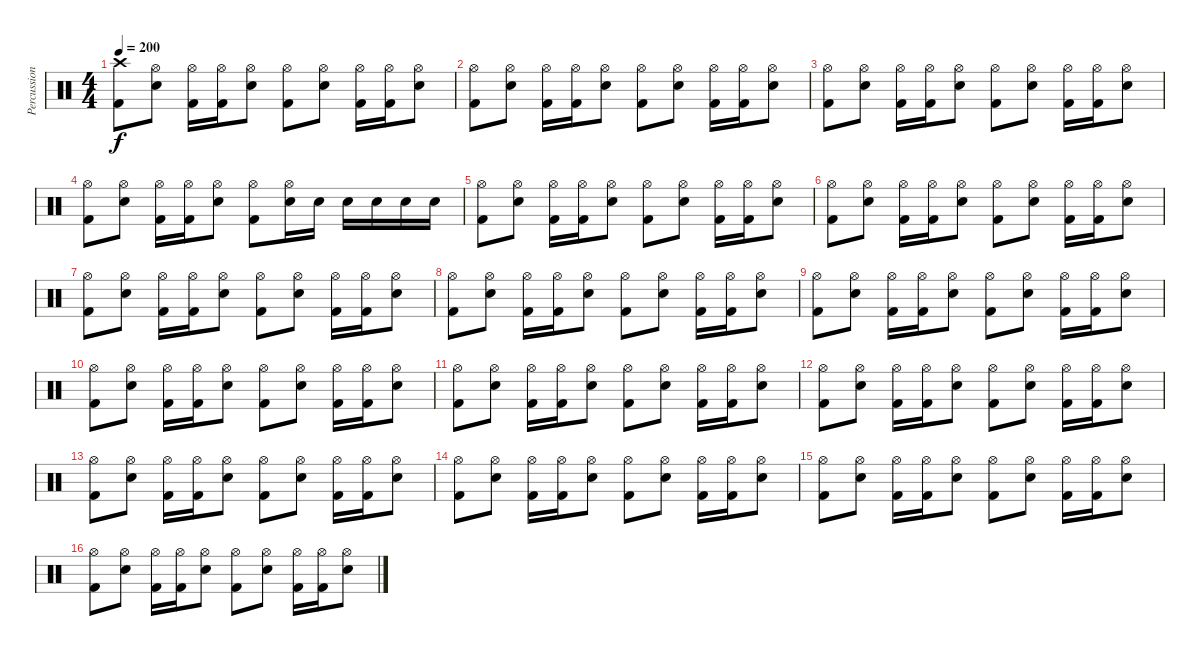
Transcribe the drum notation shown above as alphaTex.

\track ("Percussions" "Percussion") {instrument percussion}
\staff {score}
\articulation defaults
\ts (4 4)
\tempo 200
\clef neutral
\ks c
("Crash high (hit)" "Kick (hit) 2").8{dy f} ("Hi-Hat (open)" "Electric Snare (hit)").8 ("Hi-Hat (open)" "Kick (hit) 2").16 ("Hi-Hat (open)" "Kick (hit) 2").16 ("Hi-Hat (open)" "Electric Snare (hit)").8 ("Hi-Hat (open)" "Kick (hit) 2").8 ("Hi-Hat (open)" "Electric Snare (hit)").8 ("Hi-Hat (open)" "Kick (hit) 2").16 ("Hi-Hat (open)" "Kick (hit) 2").16 ("Hi-Hat (open)" "Electric Snare (hit)").8 |
("Hi-Hat (open)" "Kick (hit) 2").8 ("Hi-Hat (open)" "Electric Snare (hit)").8 ("Hi-Hat (open)" "Kick (hit) 2").16 ("Hi-Hat (open)" "Kick (hit) 2").16 ("Hi-Hat (open)" "Electric Snare (hit)").8 ("Hi-Hat (open)" "Kick (hit) 2").8 ("Hi-Hat (open)" "Electric Snare (hit)").8 ("Hi-Hat (open)" "Kick (hit) 2").16 ("Hi-Hat (open)" "Kick (hit) 2").16 ("Hi-Hat (open)" "Electric Snare (hit)").8 |
("Hi-Hat (open)" "Kick (hit) 2").8 ("Hi-Hat (open)" "Electric Snare (hit)").8 ("Hi-Hat (open)" "Kick (hit) 2").16 ("Hi-Hat (open)" "Kick (hit) 2").16 ("Hi-Hat (open)" "Electric Snare (hit)").8 ("Hi-Hat (open)" "Kick (hit) 2").8 ("Hi-Hat (open)" "Electric Snare (hit)").8 ("Hi-Hat (open)" "Kick (hit) 2").16 ("Hi-Hat (open)" "Kick (hit) 2").16 ("Hi-Hat (open)" "Electric Snare (hit)").8 |
("Hi-Hat (open)" "Kick (hit) 2").8 ("Hi-Hat (open)" "Electric Snare (hit)").8 ("Hi-Hat (open)" "Kick (hit) 2").16 ("Hi-Hat (open)" "Kick (hit) 2").16 ("Hi-Hat (open)" "Electric Snare (hit)").8 ("Hi-Hat (open)" "Kick (hit) 2").8 ("Hi-Hat (open)" "Electric Snare (hit)").16 "Electric Snare (hit)".16 "Electric Snare (hit)".16 "Electric Snare (hit)".16 "Electric Snare (hit)".16 "Electric Snare (hit)".16 |
("Hi-Hat (open)" "Kick (hit) 2").8 ("Hi-Hat (open)" "Electric Snare (hit)").8 ("Hi-Hat (open)" "Kick (hit) 2").16 ("Hi-Hat (open)" "Kick (hit) 2").16 ("Hi-Hat (open)" "Electric Snare (hit)").8 ("Hi-Hat (open)" "Kick (hit) 2").8 ("Hi-Hat (open)" "Electric Snare (hit)").8 ("Hi-Hat (open)" "Kick (hit) 2").16 ("Hi-Hat (open)" "Kick (hit) 2").16 ("Hi-Hat (open)" "Electric Snare (hit)").8 |
("Hi-Hat (open)" "Kick (hit) 2").8 ("Hi-Hat (open)" "Electric Snare (hit)").8 ("Hi-Hat (open)" "Kick (hit) 2").16 ("Hi-Hat (open)" "Kick (hit) 2").16 ("Hi-Hat (open)" "Electric Snare (hit)").8 ("Hi-Hat (open)" "Kick (hit) 2").8 ("Hi-Hat (open)" "Electric Snare (hit)").8 ("Hi-Hat (open)" "Kick (hit) 2").16 ("Hi-Hat (open)" "Kick (hit) 2").16 ("Hi-Hat (open)" "Electric Snare (hit)").8 |
("Hi-Hat (open)" "Kick (hit) 2").8 ("Hi-Hat (open)" "Electric Snare (hit)").8 ("Hi-Hat (open)" "Kick (hit) 2").16 ("Hi-Hat (open)" "Kick (hit) 2").16 ("Hi-Hat (open)" "Electric Snare (hit)").8 ("Hi-Hat (open)" "Kick (hit) 2").8 ("Hi-Hat (open)" "Electric Snare (hit)").8 ("Hi-Hat (open)" "Kick (hit) 2").16 ("Hi-Hat (open)" "Kick (hit) 2").16 ("Hi-Hat (open)" "Electric Snare (hit)").8 |
("Hi-Hat (open)" "Kick (hit) 2").8 ("Hi-Hat (open)" "Electric Snare (hit)").8 ("Hi-Hat (open)" "Kick (hit) 2").16 ("Hi-Hat (open)" "Kick (hit) 2").16 ("Hi-Hat (open)" "Electric Snare (hit)").8 ("Hi-Hat (open)" "Kick (hit) 2").8 ("Hi-Hat (open)" "Electric Snare (hit)").8 ("Hi-Hat (open)" "Kick (hit) 2").16 ("Hi-Hat (open)" "Kick (hit) 2").16 ("Hi-Hat (open)" "Electric Snare (hit)").8 |
("Hi-Hat (open)" "Kick (hit) 2").8 ("Hi-Hat (open)" "Electric Snare (hit)").8 ("Hi-Hat (open)" "Kick (hit) 2").16 ("Hi-Hat (open)" "Kick (hit) 2").16 ("Hi-Hat (open)" "Electric Snare (hit)").8 ("Hi-Hat (open)" "Kick (hit) 2").8 ("Hi-Hat (open)" "Electric Snare (hit)").8 ("Hi-Hat (open)" "Kick (hit) 2").16 ("Hi-Hat (open)" "Kick (hit) 2").16 ("Hi-Hat (open)" "Electric Snare (hit)").8 |
("Hi-Hat (open)" "Kick (hit) 2").8 ("Hi-Hat (open)" "Electric Snare (hit)").8 ("Hi-Hat (open)" "Kick (hit) 2").16 ("Hi-Hat (open)" "Kick (hit) 2").16 ("Hi-Hat (open)" "Electric Snare (hit)").8 ("Hi-Hat (open)" "Kick (hit) 2").8 ("Hi-Hat (open)" "Electric Snare (hit)").8 ("Hi-Hat (open)" "Kick (hit) 2").16 ("Hi-Hat (open)" "Kick (hit) 2").16 ("Hi-Hat (open)" "Electric Snare (hit)").8 |
("Hi-Hat (open)" "Kick (hit) 2").8 ("Hi-Hat (open)" "Electric Snare (hit)").8 ("Hi-Hat (open)" "Kick (hit) 2").16 ("Hi-Hat (open)" "Kick (hit) 2").16 ("Hi-Hat (open)" "Electric Snare (hit)").8 ("Hi-Hat (open)" "Kick (hit) 2").8 ("Hi-Hat (open)" "Electric Snare (hit)").8 ("Hi-Hat (open)" "Kick (hit) 2").16 ("Hi-Hat (open)" "Kick (hit) 2").16 ("Hi-Hat (open)" "Electric Snare (hit)").8 |
("Hi-Hat (open)" "Kick (hit) 2").8 ("Hi-Hat (open)" "Electric Snare (hit)").8 ("Hi-Hat (open)" "Kick (hit) 2").16 ("Hi-Hat (open)" "Kick (hit) 2").16 ("Hi-Hat (open)" "Electric Snare (hit)").8 ("Hi-Hat (open)" "Kick (hit) 2").8 ("Hi-Hat (open)" "Electric Snare (hit)").8 ("Hi-Hat (open)" "Kick (hit) 2").16 ("Hi-Hat (open)" "Kick (hit) 2").16 ("Hi-Hat (open)" "Electric Snare (hit)").8 |
("Hi-Hat (open)" "Kick (hit) 2").8 ("Hi-Hat (open)" "Electric Snare (hit)").8 ("Hi-Hat (open)" "Kick (hit) 2").16 ("Hi-Hat (open)" "Kick (hit) 2").16 ("Hi-Hat (open)" "Electric Snare (hit)").8 ("Hi-Hat (open)" "Kick (hit) 2").8 ("Hi-Hat (open)" "Electric Snare (hit)").8 ("Hi-Hat (open)" "Kick (hit) 2").16 ("Hi-Hat (open)" "Kick (hit) 2").16 ("Hi-Hat (open)" "Electric Snare (hit)").8 |
("Hi-Hat (open)" "Kick (hit) 2").8 ("Hi-Hat (open)" "Electric Snare (hit)").8 ("Hi-Hat (open)" "Kick (hit) 2").16 ("Hi-Hat (open)" "Kick (hit) 2").16 ("Hi-Hat (open)" "Electric Snare (hit)").8 ("Hi-Hat (open)" "Kick (hit) 2").8 ("Hi-Hat (open)" "Electric Snare (hit)").8 ("Hi-Hat (open)" "Kick (hit) 2").16 ("Hi-Hat (open)" "Kick (hit) 2").16 ("Hi-Hat (open)" "Electric Snare (hit)").8 |
("Hi-Hat (open)" "Kick (hit) 2").8 ("Hi-Hat (open)" "Electric Snare (hit)").8 ("Hi-Hat (open)" "Kick (hit) 2").16 ("Hi-Hat (open)" "Kick (hit) 2").16 ("Hi-Hat (open)" "Electric Snare (hit)").8 ("Hi-Hat (open)" "Kick (hit) 2").8 ("Hi-Hat (open)" "Electric Snare (hit)").8 ("Hi-Hat (open)" "Kick (hit) 2").16 ("Hi-Hat (open)" "Kick (hit) 2").16 ("Hi-Hat (open)" "Electric Snare (hit)").8 |
("Hi-Hat (open)" "Kick (hit) 2").8 ("Hi-Hat (open)" "Electric Snare (hit)").8 ("Hi-Hat (open)" "Kick (hit) 2").16 ("Hi-Hat (open)" "Kick (hit) 2").16 ("Hi-Hat (open)" "Electric Snare (hit)").8 ("Hi-Hat (open)" "Kick (hit) 2").8 ("Hi-Hat (open)" "Electric Snare (hit)").8 ("Hi-Hat (open)" "Kick (hit) 2").16 ("Hi-Hat (open)" "Kick (hit) 2").16 ("Hi-Hat (open)" "Electric Snare (hit)").8
